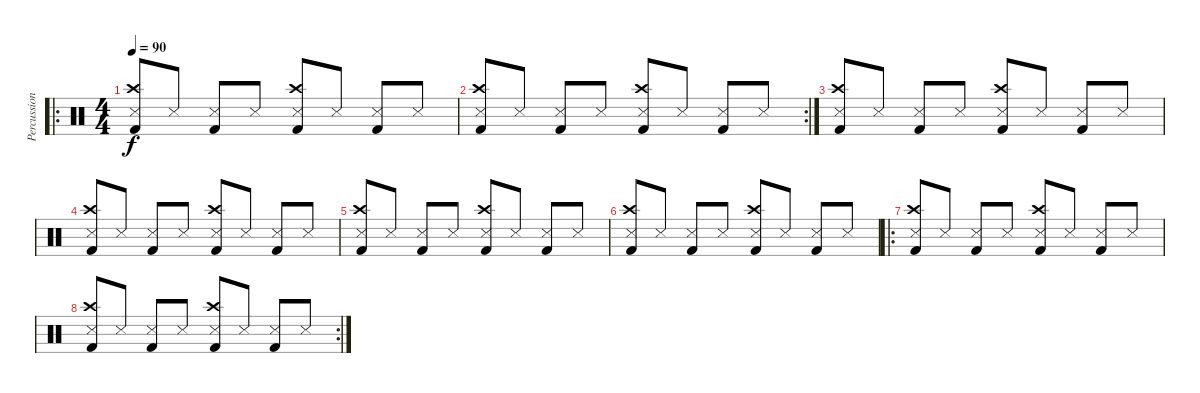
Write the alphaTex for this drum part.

\track ("Percussions" "Percussion") {instrument percussion}
\staff {score}
\articulation defaults
\ro
\ts (4 4)
\tempo 90
\clef neutral
\ks c
("Snare (side stick) 3" "Crash high (hit)" "Kick (hit) 2").8{dy f} "Metronome (hit)".8 ("Snare (side stick) 3" "Kick (hit) 2").8 "Metronome (hit)".8 ("Snare (side stick) 3" "Crash high (hit)" "Kick (hit) 2").8 "Metronome (hit)".8 ("Snare (side stick) 3" "Kick (hit) 2").8 "Metronome (hit)".8 |
\rc 2
("Snare (side stick) 3" "Crash high (hit)" "Kick (hit) 2").8 "Metronome (hit)".8 ("Snare (side stick) 3" "Kick (hit) 2").8 "Metronome (hit)".8 ("Snare (side stick) 3" "Crash high (hit)" "Kick (hit) 2").8 "Metronome (hit)".8 ("Snare (side stick) 3" "Kick (hit) 2").8 "Metronome (hit)".8 |
("Snare (side stick) 3" "Crash high (hit)" "Kick (hit) 2").8 "Metronome (hit)".8 ("Snare (side stick) 3" "Kick (hit) 2").8 "Metronome (hit)".8 ("Snare (side stick) 3" "Crash high (hit)" "Kick (hit) 2").8 "Metronome (hit)".8 ("Snare (side stick) 3" "Kick (hit) 2").8 "Metronome (hit)".8 |
("Snare (side stick) 3" "Crash high (hit)" "Kick (hit) 2").8 "Metronome (hit)".8 ("Snare (side stick) 3" "Kick (hit) 2").8 "Metronome (hit)".8 ("Snare (side stick) 3" "Crash high (hit)" "Kick (hit) 2").8 "Metronome (hit)".8 ("Snare (side stick) 3" "Kick (hit) 2").8 "Metronome (hit)".8 |
("Snare (side stick) 3" "Crash high (hit)" "Kick (hit) 2").8 "Metronome (hit)".8 ("Snare (side stick) 3" "Kick (hit) 2").8 "Metronome (hit)".8 ("Snare (side stick) 3" "Crash high (hit)" "Kick (hit) 2").8 "Metronome (hit)".8 ("Snare (side stick) 3" "Kick (hit) 2").8 "Metronome (hit)".8 |
("Snare (side stick) 3" "Crash high (hit)" "Kick (hit) 2").8 "Metronome (hit)".8 ("Snare (side stick) 3" "Kick (hit) 2").8 "Metronome (hit)".8 ("Snare (side stick) 3" "Crash high (hit)" "Kick (hit) 2").8 "Metronome (hit)".8 ("Snare (side stick) 3" "Kick (hit) 2").8 "Metronome (hit)".8 |
\ro
("Snare (side stick) 3" "Crash high (hit)" "Kick (hit) 2").8 "Metronome (hit)".8 ("Snare (side stick) 3" "Kick (hit) 2").8 "Metronome (hit)".8 ("Snare (side stick) 3" "Crash high (hit)" "Kick (hit) 2").8 "Metronome (hit)".8 ("Snare (side stick) 3" "Kick (hit) 2").8 "Metronome (hit)".8 |
\rc 2
("Snare (side stick) 3" "Crash high (hit)" "Kick (hit) 2").8 "Metronome (hit)".8 ("Snare (side stick) 3" "Kick (hit) 2").8 "Metronome (hit)".8 ("Snare (side stick) 3" "Crash high (hit)" "Kick (hit) 2").8 "Metronome (hit)".8 ("Snare (side stick) 3" "Kick (hit) 2").8 "Metronome (hit)".8
